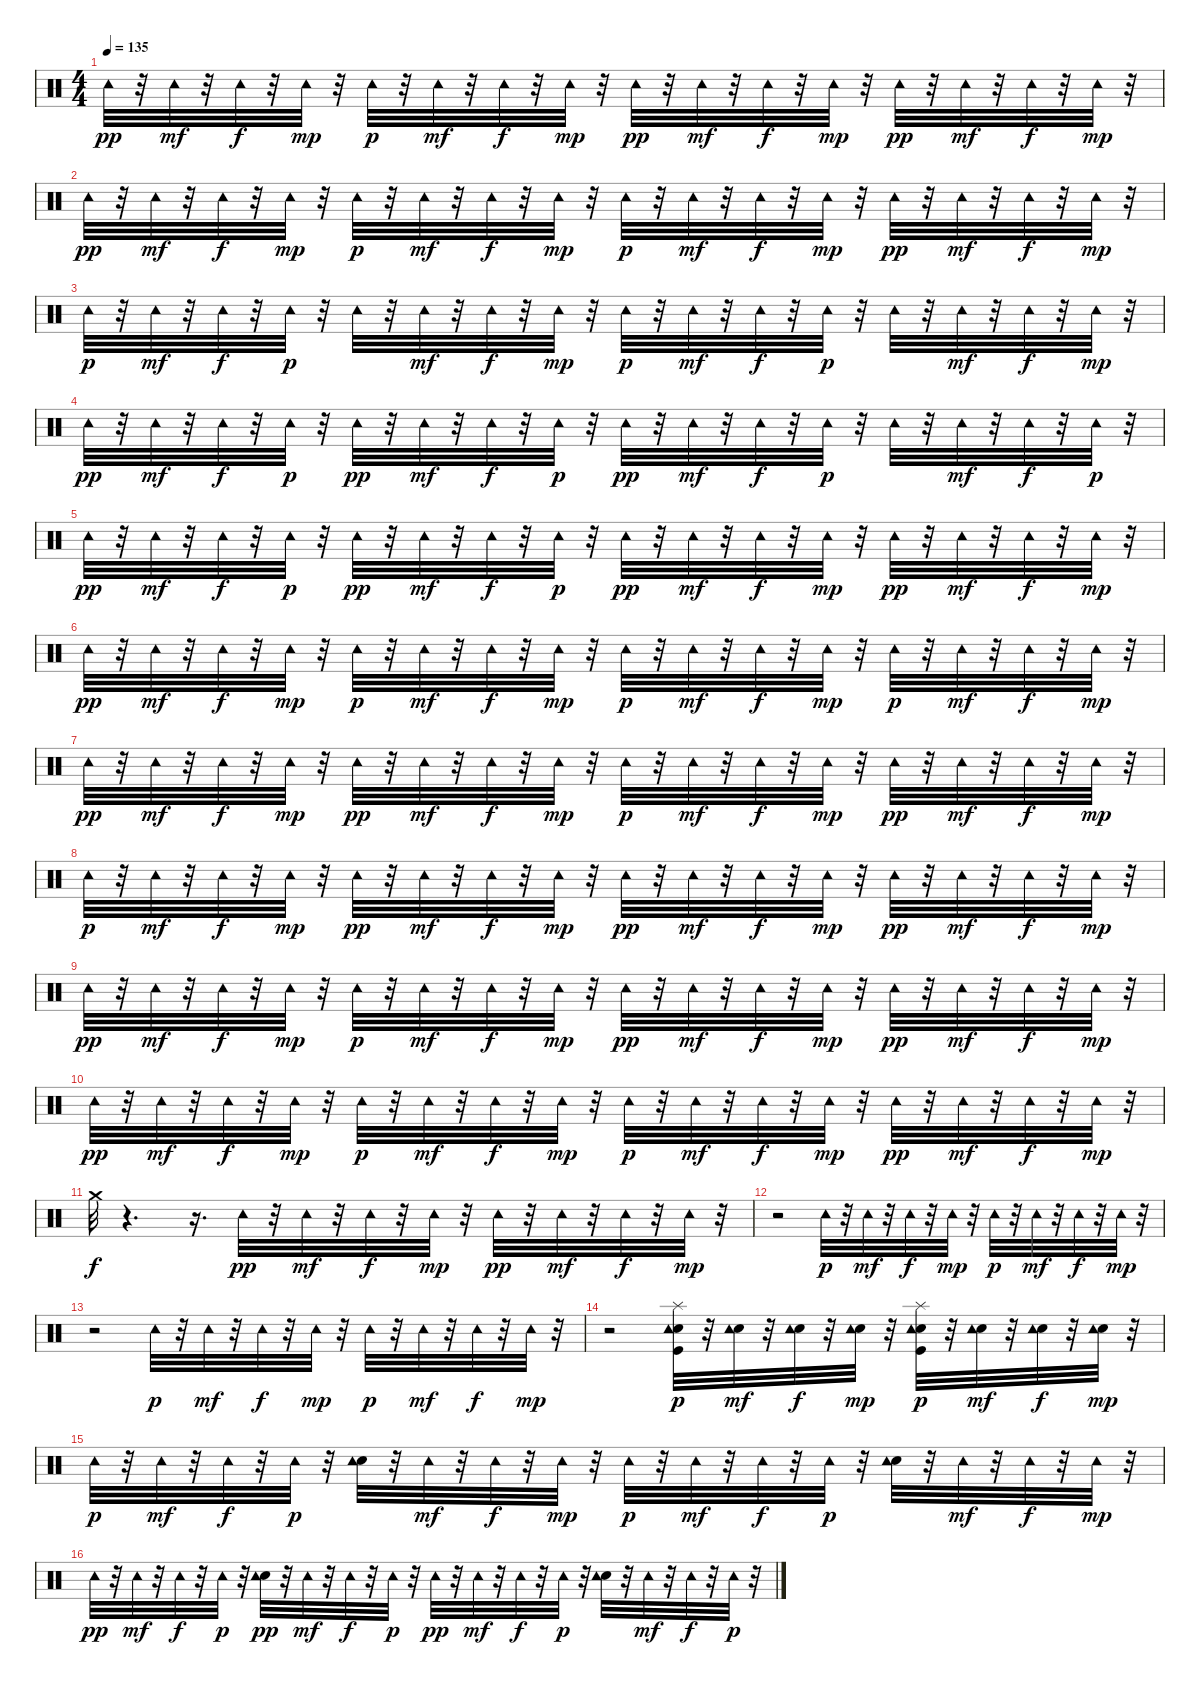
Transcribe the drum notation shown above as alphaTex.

\track "" {instrument percussion}
\staff {score}
\articulation defaults
\ts (4 4)
\tempo 135
\clef neutral
\ks c "Tambourine (hit)".32{dy pp}
r.32 "Tambourine (hit)".32{dy mf} r.32 "Tambourine (hit)".32{dy f} r.32 "Tambourine (hit)".32{dy mp} r.32 "Tambourine (hit)".32{dy p} r.32 "Tambourine (hit)".32{dy mf} r.32 "Tambourine (hit)".32{dy f} r.32 "Tambourine (hit)".32{dy mp} r.32 "Tambourine (hit)".32{dy pp} r.32 "Tambourine (hit)".32{dy mf} r.32 "Tambourine (hit)".32{dy f} r.32 "Tambourine (hit)".32{dy mp} r.32 "Tambourine (hit)".32{dy pp} r.32 "Tambourine (hit)".32{dy mf} r.32 "Tambourine (hit)".32{dy f} r.32 "Tambourine (hit)".32{dy mp} r.32 |
"Tambourine (hit)".32{dy pp} r.32 "Tambourine (hit)".32{dy mf} r.32 "Tambourine (hit)".32{dy f} r.32 "Tambourine (hit)".32{dy mp} r.32 "Tambourine (hit)".32{dy p} r.32 "Tambourine (hit)".32{dy mf} r.32 "Tambourine (hit)".32{dy f} r.32 "Tambourine (hit)".32{dy mp} r.32 "Tambourine (hit)".32{dy p} r.32 "Tambourine (hit)".32{dy mf} r.32 "Tambourine (hit)".32{dy f} r.32 "Tambourine (hit)".32{dy mp} r.32 "Tambourine (hit)".32{dy pp} r.32 "Tambourine (hit)".32{dy mf} r.32 "Tambourine (hit)".32{dy f} r.32 "Tambourine (hit)".32{dy mp} r.32 |
"Tambourine (hit)".32{dy p} r.32 "Tambourine (hit)".32{dy mf} r.32 "Tambourine (hit)".32{dy f} r.32 "Tambourine (hit)".32{dy p} r.32 "Tambourine (hit)".32 r.32 "Tambourine (hit)".32{dy mf} r.32 "Tambourine (hit)".32{dy f} r.32 "Tambourine (hit)".32{dy mp} r.32 "Tambourine (hit)".32{dy p} r.32 "Tambourine (hit)".32{dy mf} r.32 "Tambourine (hit)".32{dy f} r.32 "Tambourine (hit)".32{dy p} r.32 "Tambourine (hit)".32 r.32 "Tambourine (hit)".32{dy mf} r.32 "Tambourine (hit)".32{dy f} r.32 "Tambourine (hit)".32{dy mp} r.32 |
"Tambourine (hit)".32{dy pp} r.32 "Tambourine (hit)".32{dy mf} r.32 "Tambourine (hit)".32{dy f} r.32 "Tambourine (hit)".32{dy p} r.32 "Tambourine (hit)".32{dy pp} r.32 "Tambourine (hit)".32{dy mf} r.32 "Tambourine (hit)".32{dy f} r.32 "Tambourine (hit)".32{dy p} r.32 "Tambourine (hit)".32{dy pp} r.32 "Tambourine (hit)".32{dy mf} r.32 "Tambourine (hit)".32{dy f} r.32 "Tambourine (hit)".32{dy p} r.32 "Tambourine (hit)".32 r.32 "Tambourine (hit)".32{dy mf} r.32 "Tambourine (hit)".32{dy f} r.32 "Tambourine (hit)".32{dy p} r.32 |
"Tambourine (hit)".32{dy pp} r.32 "Tambourine (hit)".32{dy mf} r.32 "Tambourine (hit)".32{dy f} r.32 "Tambourine (hit)".32{dy p} r.32 "Tambourine (hit)".32{dy pp} r.32 "Tambourine (hit)".32{dy mf} r.32 "Tambourine (hit)".32{dy f} r.32 "Tambourine (hit)".32{dy p} r.32 "Tambourine (hit)".32{dy pp} r.32 "Tambourine (hit)".32{dy mf} r.32 "Tambourine (hit)".32{dy f} r.32 "Tambourine (hit)".32{dy mp} r.32 "Tambourine (hit)".32{dy pp} r.32 "Tambourine (hit)".32{dy mf} r.32 "Tambourine (hit)".32{dy f} r.32 "Tambourine (hit)".32{dy mp} r.32 |
"Tambourine (hit)".32{dy pp} r.32 "Tambourine (hit)".32{dy mf} r.32 "Tambourine (hit)".32{dy f} r.32 "Tambourine (hit)".32{dy mp} r.32 "Tambourine (hit)".32{dy p} r.32 "Tambourine (hit)".32{dy mf} r.32 "Tambourine (hit)".32{dy f} r.32 "Tambourine (hit)".32{dy mp} r.32 "Tambourine (hit)".32{dy p} r.32 "Tambourine (hit)".32{dy mf} r.32 "Tambourine (hit)".32{dy f} r.32 "Tambourine (hit)".32{dy mp} r.32 "Tambourine (hit)".32{dy p} r.32 "Tambourine (hit)".32{dy mf} r.32 "Tambourine (hit)".32{dy f} r.32 "Tambourine (hit)".32{dy mp} r.32 |
"Tambourine (hit)".32{dy pp} r.32 "Tambourine (hit)".32{dy mf} r.32 "Tambourine (hit)".32{dy f} r.32 "Tambourine (hit)".32{dy mp} r.32 "Tambourine (hit)".32{dy pp} r.32 "Tambourine (hit)".32{dy mf} r.32 "Tambourine (hit)".32{dy f} r.32 "Tambourine (hit)".32{dy mp} r.32 "Tambourine (hit)".32{dy p} r.32 "Tambourine (hit)".32{dy mf} r.32 "Tambourine (hit)".32{dy f} r.32 "Tambourine (hit)".32{dy mp} r.32 "Tambourine (hit)".32{dy pp} r.32 "Tambourine (hit)".32{dy mf} r.32 "Tambourine (hit)".32{dy f} r.32 "Tambourine (hit)".32{dy mp} r.32 |
"Tambourine (hit)".32{dy p} r.32 "Tambourine (hit)".32{dy mf} r.32 "Tambourine (hit)".32{dy f} r.32 "Tambourine (hit)".32{dy mp} r.32 "Tambourine (hit)".32{dy pp} r.32 "Tambourine (hit)".32{dy mf} r.32 "Tambourine (hit)".32{dy f} r.32 "Tambourine (hit)".32{dy mp} r.32 "Tambourine (hit)".32{dy pp} r.32 "Tambourine (hit)".32{dy mf} r.32 "Tambourine (hit)".32{dy f} r.32 "Tambourine (hit)".32{dy mp} r.32 "Tambourine (hit)".32{dy pp} r.32 "Tambourine (hit)".32{dy mf} r.32 "Tambourine (hit)".32{dy f} r.32 "Tambourine (hit)".32{dy mp} r.32 |
"Tambourine (hit)".32{dy pp} r.32 "Tambourine (hit)".32{dy mf} r.32 "Tambourine (hit)".32{dy f} r.32 "Tambourine (hit)".32{dy mp} r.32 "Tambourine (hit)".32{dy p} r.32 "Tambourine (hit)".32{dy mf} r.32 "Tambourine (hit)".32{dy f} r.32 "Tambourine (hit)".32{dy mp} r.32 "Tambourine (hit)".32{dy pp} r.32 "Tambourine (hit)".32{dy mf} r.32 "Tambourine (hit)".32{dy f} r.32 "Tambourine (hit)".32{dy mp} r.32 "Tambourine (hit)".32{dy pp} r.32 "Tambourine (hit)".32{dy mf} r.32 "Tambourine (hit)".32{dy f} r.32 "Tambourine (hit)".32{dy mp} r.32 |
"Tambourine (hit)".32{dy pp} r.32 "Tambourine (hit)".32{dy mf} r.32 "Tambourine (hit)".32{dy f} r.32 "Tambourine (hit)".32{dy mp} r.32 "Tambourine (hit)".32{dy p} r.32 "Tambourine (hit)".32{dy mf} r.32 "Tambourine (hit)".32{dy f} r.32 "Tambourine (hit)".32{dy mp} r.32 "Tambourine (hit)".32{dy p} r.32 "Tambourine (hit)".32{dy mf} r.32 "Tambourine (hit)".32{dy f} r.32 "Tambourine (hit)".32{dy mp} r.32 "Tambourine (hit)".32{dy pp} r.32 "Tambourine (hit)".32{dy mf} r.32 "Tambourine (hit)".32{dy f} r.32 "Tambourine (hit)".32{dy mp} r.32 |
"Crash medium (hit)".32{dy f} r.4{d} r.16{d} "Tambourine (hit)".32{dy pp} r.32 "Tambourine (hit)".32{dy mf} r.32 "Tambourine (hit)".32{dy f} r.32 "Tambourine (hit)".32{dy mp} r.32 "Tambourine (hit)".32{dy pp} r.32 "Tambourine (hit)".32{dy mf} r.32 "Tambourine (hit)".32{dy f} r.32 "Tambourine (hit)".32{dy mp} r.32 |
r.2 "Tambourine (hit)".32{dy p} r.32 "Tambourine (hit)".32{dy mf} r.32 "Tambourine (hit)".32{dy f} r.32 "Tambourine (hit)".32{dy mp} r.32 "Tambourine (hit)".32{dy p} r.32 "Tambourine (hit)".32{dy mf} r.32 "Tambourine (hit)".32{dy f} r.32 "Tambourine (hit)".32{dy mp} r.32 |
r.2 "Tambourine (hit)".32{dy p} r.32 "Tambourine (hit)".32{dy mf} r.32 "Tambourine (hit)".32{dy f} r.32 "Tambourine (hit)".32{dy mp} r.32 "Tambourine (hit)".32{dy p} r.32 "Tambourine (hit)".32{dy mf} r.32 "Tambourine (hit)".32{dy f} r.32 "Tambourine (hit)".32{dy mp} r.32 |
r.2 ("Splash (hit)" "Kick (hit)" "Snare (hit) 2" "Tambourine (hit)").32{dy p} r.32 ("Snare (hit) 2" "Tambourine (hit)").32{dy mf} r.32 ("Snare (hit) 2" "Tambourine (hit)").32{dy f} r.32 ("Snare (hit) 2" "Tambourine (hit)").32{dy mp} r.32 ("Splash (hit)" "Kick (hit)" "Snare (hit) 2" "Tambourine (hit)").32{dy p} r.32 ("Snare (hit) 2" "Tambourine (hit)").32{dy mf} r.32 ("Snare (hit) 2" "Tambourine (hit)").32{dy f} r.32 ("Snare (hit) 2" "Tambourine (hit)").32{dy mp} r.32 |
"Tambourine (hit)".32{dy p} r.32 "Tambourine (hit)".32{dy mf} r.32 "Tambourine (hit)".32{dy f} r.32 "Tambourine (hit)".32{dy p} r.32 ("Snare (hit) 2" "Tambourine (hit)").32 r.32 "Tambourine (hit)".32{dy mf} r.32 "Tambourine (hit)".32{dy f} r.32 "Tambourine (hit)".32{dy mp} r.32 "Tambourine (hit)".32{dy p} r.32 "Tambourine (hit)".32{dy mf} r.32 "Tambourine (hit)".32{dy f} r.32 "Tambourine (hit)".32{dy p} r.32 ("Snare (hit) 2" "Tambourine (hit)").32 r.32 "Tambourine (hit)".32{dy mf} r.32 "Tambourine (hit)".32{dy f} r.32 "Tambourine (hit)".32{dy mp} r.32 |
"Tambourine (hit)".32{dy pp} r.32 "Tambourine (hit)".32{dy mf} r.32 "Tambourine (hit)".32{dy f} r.32 "Tambourine (hit)".32{dy p} r.32 ("Snare (hit) 2" "Tambourine (hit)").32{dy pp} r.32 "Tambourine (hit)".32{dy mf} r.32 "Tambourine (hit)".32{dy f} r.32 "Tambourine (hit)".32{dy p} r.32 "Tambourine (hit)".32{dy pp} r.32 "Tambourine (hit)".32{dy mf} r.32 "Tambourine (hit)".32{dy f} r.32 "Tambourine (hit)".32{dy p} r.32 ("Snare (hit) 2" "Tambourine (hit)").32 r.32 "Tambourine (hit)".32{dy mf} r.32 "Tambourine (hit)".32{dy f} r.32 "Tambourine (hit)".32{dy p} r.32
